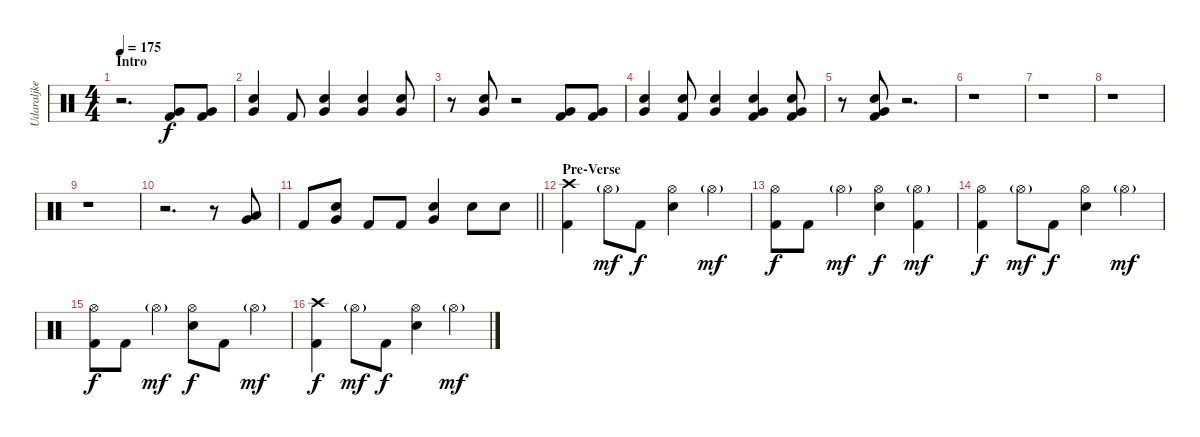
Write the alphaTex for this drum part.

\track ("Udaraljke" "Udaraljke") {instrument percussion}
\staff {score}
\articulation defaults
\ts (4 4)
\section ("" "Intro")
\tempo 175
\clef neutral
\ks c
r.2{d dy f} ("Very Low Tom (hit)" "Kick (hit) 2").8 ("Very Low Tom (hit)" "Kick (hit) 2").8 |
("Very Low Tom (hit)" "Electric Snare (hit)").4 "Kick (hit) 2".8 ("Very Low Tom (hit)" "Electric Snare (hit)").4 ("Very Low Tom (hit)" "Electric Snare (hit)").4 ("Very Low Tom (hit)" "Electric Snare (hit)").8 |
r.8 ("Very Low Tom (hit)" "Electric Snare (hit)").8 r.2 ("Very Low Tom (hit)" "Kick (hit) 2").8 ("Very Low Tom (hit)" "Kick (hit) 2").8 |
("Very Low Tom (hit)" "Electric Snare (hit)").4 ("Electric Snare (hit)" "Kick (hit) 2").8 ("Very Low Tom (hit)" "Electric Snare (hit)").4 ("Very Low Tom (hit)" "Electric Snare (hit)" "Kick (hit) 2").4 ("Very Low Tom (hit)" "Electric Snare (hit)" "Kick (hit) 2").8 |
r.8 ("Very Low Tom (hit)" "Electric Snare (hit)" "Kick (hit) 2").8 r.2{d} |
r.1 |
r.1 |
r.1 |
r.1 |
r.2{d} r.8 ("Low Tom (hit)" "Very Low Tom (hit)").8 |
\barLineRight lightlight "Kick (hit) 2".8
("Very Low Tom (hit)" "Electric Snare (hit)").8 "Kick (hit) 2".8 "Kick (hit) 2".8 ("Very Low Tom (hit)" "Electric Snare (hit)").4 "Electric Snare (hit)".8 "Electric Snare (hit)".8 |
\section ("" "Pre-Verse")
("Crash high (hit)" "Kick (hit) 2").4 "Hi-Hat (open)"{g}.8{dy mf} "Kick (hit) 2".8{dy f} ("Hi-Hat (open)" "Electric Snare (hit)").4 "Hi-Hat (open)"{g}.4{dy mf} |
("Hi-Hat (open)" "Kick (hit) 2").8{dy f} "Kick (hit) 2".8 "Hi-Hat (open)"{g}.4{dy mf} ("Hi-Hat (open)" "Electric Snare (hit)").4{dy f} ("Hi-Hat (open)"{g} "Kick (hit) 2").4{dy mf} |
("Hi-Hat (open)" "Kick (hit) 2").4{dy f} "Hi-Hat (open)"{g}.8{dy mf} "Kick (hit) 2".8{dy f} ("Hi-Hat (open)" "Electric Snare (hit)").4 "Hi-Hat (open)"{g}.4{dy mf} |
("Hi-Hat (open)" "Kick (hit) 2").8{dy f} "Kick (hit) 2".8 "Hi-Hat (open)"{g}.4{dy mf} ("Hi-Hat (open)" "Electric Snare (hit)").8{dy f} "Kick (hit) 2".8 "Hi-Hat (open)"{g}.4{dy mf} |
("Crash high (hit)" "Kick (hit) 2").4{dy f} "Hi-Hat (open)"{g}.8{dy mf} "Kick (hit) 2".8{dy f} ("Hi-Hat (open)" "Electric Snare (hit)").4 "Hi-Hat (open)"{g}.4{dy mf}
